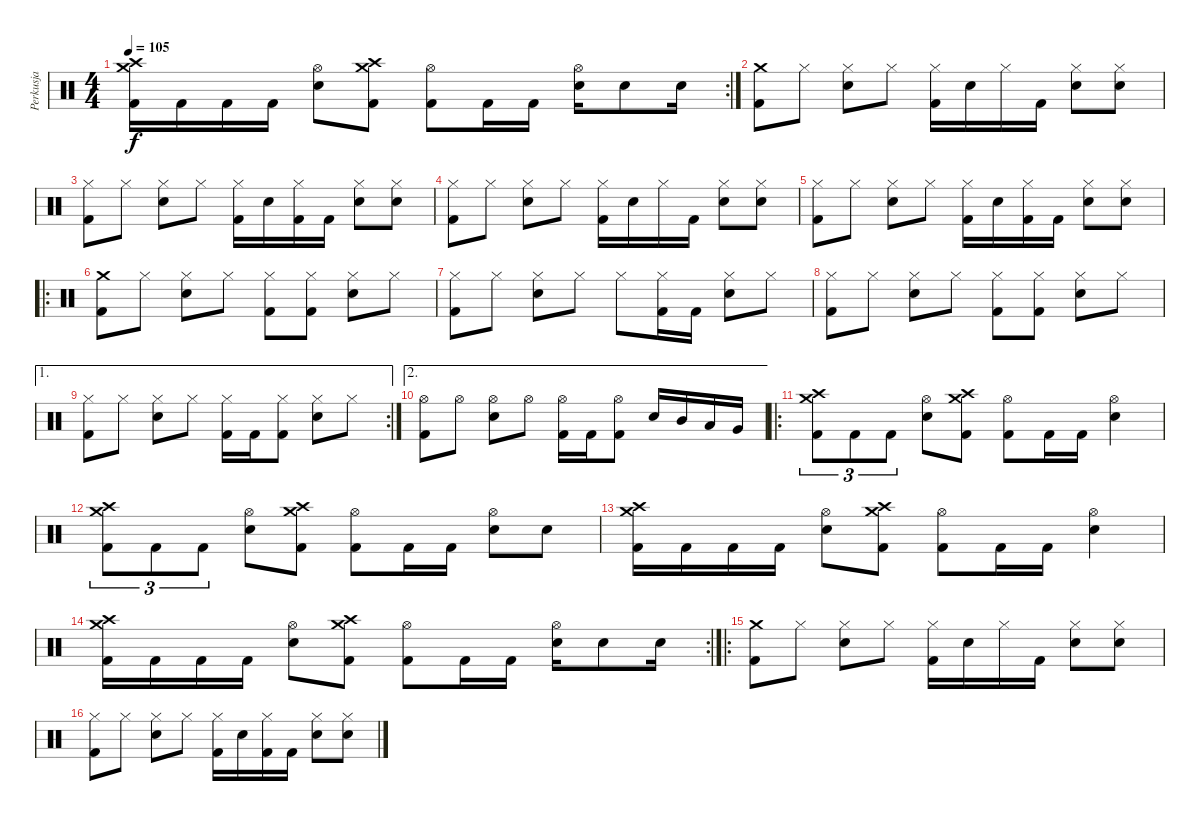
\track ("Perkusja" "Perkusja") {instrument percussion}
\staff {score}
\articulation defaults
\rc 2
\ts (4 4)
\tempo 105
\clef neutral
\ks c
("Crash high (hit)" "Crash medium (hit)" "Kick (hit) 2").16{dy f} "Kick (hit) 2".16 "Kick (hit) 2".16 "Kick (hit) 2".16 ("Hi-Hat (open)" "Snare (hit) 2").8 ("Crash high (hit)" "Crash medium (hit)" "Kick (hit) 2").8 ("Hi-Hat (open)" "Kick (hit) 2").8 "Kick (hit) 2".16 "Kick (hit) 2".16 ("Hi-Hat (open)" "Snare (hit) 2").16 "Snare (hit) 2".8 "Snare (hit) 2".16 |
("Crash medium (hit)" "Kick (hit) 2").8 "Hi-Hat (closed)".8 ("Hi-Hat (closed)" "Snare (hit) 2").8 "Hi-Hat (closed)".8 ("Hi-Hat (closed)" "Kick (hit) 2").16 "Snare (hit) 2".16 "Hi-Hat (closed)".16 "Kick (hit) 2".16 ("Hi-Hat (closed)" "Snare (hit) 2").8 ("Hi-Hat (closed)" "Snare (hit) 2").8 |
("Hi-Hat (closed)" "Kick (hit) 2").8 "Hi-Hat (closed)".8 ("Hi-Hat (closed)" "Snare (hit) 2").8 "Hi-Hat (closed)".8 ("Hi-Hat (closed)" "Kick (hit) 2").16 "Snare (hit) 2".16 ("Hi-Hat (closed)" "Kick (hit) 2").16 "Kick (hit) 2".16 ("Hi-Hat (closed)" "Snare (hit) 2").8 ("Hi-Hat (closed)" "Snare (hit) 2").8 |
("Hi-Hat (closed)" "Kick (hit) 2").8 "Hi-Hat (closed)".8 ("Hi-Hat (closed)" "Snare (hit) 2").8 "Hi-Hat (closed)".8 ("Hi-Hat (closed)" "Kick (hit) 2").16 "Snare (hit) 2".16 "Hi-Hat (closed)".16 "Kick (hit) 2".16 ("Hi-Hat (closed)" "Snare (hit) 2").8 ("Hi-Hat (closed)" "Snare (hit) 2").8 |
("Hi-Hat (closed)" "Kick (hit) 2").8 "Hi-Hat (closed)".8 ("Hi-Hat (closed)" "Snare (hit) 2").8 "Hi-Hat (closed)".8 ("Hi-Hat (closed)" "Kick (hit) 2").16 "Snare (hit) 2".16 ("Hi-Hat (closed)" "Kick (hit) 2").16 "Kick (hit) 2".16 ("Hi-Hat (closed)" "Snare (hit) 2").8 ("Hi-Hat (closed)" "Snare (hit) 2").8 |
\ro
("Crash medium (hit)" "Kick (hit) 2").8 "Hi-Hat (closed)".8 ("Hi-Hat (closed)" "Snare (hit) 2").8 "Hi-Hat (closed)".8 ("Hi-Hat (closed)" "Kick (hit) 2").8 ("Hi-Hat (closed)" "Kick (hit) 2").8 ("Hi-Hat (closed)" "Snare (hit) 2").8 "Hi-Hat (closed)".8 |
("Hi-Hat (closed)" "Kick (hit) 2").8 "Hi-Hat (closed)".8 ("Hi-Hat (closed)" "Snare (hit) 2").8 "Hi-Hat (closed)".8 "Hi-Hat (closed)".8 ("Hi-Hat (closed)" "Kick (hit) 2").16 "Kick (hit) 2".16 ("Hi-Hat (closed)" "Snare (hit) 2").8 "Hi-Hat (closed)".8 |
("Hi-Hat (closed)" "Kick (hit) 2").8 "Hi-Hat (closed)".8 ("Hi-Hat (closed)" "Snare (hit) 2").8 "Hi-Hat (closed)".8 ("Hi-Hat (closed)" "Kick (hit) 2").8 ("Hi-Hat (closed)" "Kick (hit) 2").8 ("Hi-Hat (closed)" "Snare (hit) 2").8 "Hi-Hat (closed)".8 |
\ae 1
\rc 2
("Hi-Hat (closed)" "Kick (hit) 2").8 "Hi-Hat (closed)".8 ("Hi-Hat (closed)" "Snare (hit) 2").8 "Hi-Hat (closed)".8 ("Hi-Hat (closed)" "Kick (hit) 2").16 "Kick (hit) 2".16 ("Hi-Hat (closed)" "Kick (hit) 2").8 ("Hi-Hat (closed)" "Snare (hit) 2").8 "Hi-Hat (closed)".8 |
\ae 2
("Hi-Hat (open)" "Kick (hit) 2").8 "Hi-Hat (open)".8 ("Hi-Hat (open)" "Snare (hit) 2").8 "Hi-Hat (open)".8 ("Hi-Hat (open)" "Kick (hit) 2").16 "Kick (hit) 2".16 ("Hi-Hat (open)" "Kick (hit) 2").8 "Snare (hit) 2".16 "Mid Tom (hit)".16 "Low Tom (hit)".16 "Very Low Tom (hit)".16 |
\ro
("Crash high (hit)" "Crash medium (hit)" "Kick (hit) 2").8{tu (3 2)} "Kick (hit) 2".8{tu (3 2)} "Kick (hit) 2".8{tu (3 2)} ("Hi-Hat (open)" "Snare (hit) 2").8 ("Crash high (hit)" "Crash medium (hit)" "Kick (hit) 2").8 ("Hi-Hat (open)" "Kick (hit) 2").8 "Kick (hit) 2".16 "Kick (hit) 2".16 ("Hi-Hat (open)" "Snare (hit) 2").4 |
("Crash high (hit)" "Crash medium (hit)" "Kick (hit) 2").8{tu (3 2)} "Kick (hit) 2".8{tu (3 2)} "Kick (hit) 2".8{tu (3 2)} ("Hi-Hat (open)" "Snare (hit) 2").8 ("Crash high (hit)" "Crash medium (hit)" "Kick (hit) 2").8 ("Hi-Hat (open)" "Kick (hit) 2").8 "Kick (hit) 2".16 "Kick (hit) 2".16 ("Hi-Hat (open)" "Snare (hit) 2").8 "Snare (hit) 2".8 |
("Crash high (hit)" "Crash medium (hit)" "Kick (hit) 2").16 "Kick (hit) 2".16 "Kick (hit) 2".16 "Kick (hit) 2".16 ("Hi-Hat (open)" "Snare (hit) 2").8 ("Crash high (hit)" "Crash medium (hit)" "Kick (hit) 2").8 ("Hi-Hat (open)" "Kick (hit) 2").8 "Kick (hit) 2".16 "Kick (hit) 2".16 ("Hi-Hat (open)" "Snare (hit) 2").4 |
\rc 2
("Crash high (hit)" "Crash medium (hit)" "Kick (hit) 2").16 "Kick (hit) 2".16 "Kick (hit) 2".16 "Kick (hit) 2".16 ("Hi-Hat (open)" "Snare (hit) 2").8 ("Crash high (hit)" "Crash medium (hit)" "Kick (hit) 2").8 ("Hi-Hat (open)" "Kick (hit) 2").8 "Kick (hit) 2".16 "Kick (hit) 2".16 ("Hi-Hat (open)" "Snare (hit) 2").16 "Snare (hit) 2".8 "Snare (hit) 2".16 |
\ro
("Crash medium (hit)" "Kick (hit) 2").8 "Hi-Hat (closed)".8 ("Hi-Hat (closed)" "Snare (hit) 2").8 "Hi-Hat (closed)".8 ("Hi-Hat (closed)" "Kick (hit) 2").16 "Snare (hit) 2".16 "Hi-Hat (closed)".16 "Kick (hit) 2".16 ("Hi-Hat (closed)" "Snare (hit) 2").8 ("Hi-Hat (closed)" "Snare (hit) 2").8 |
("Hi-Hat (closed)" "Kick (hit) 2").8 "Hi-Hat (closed)".8 ("Hi-Hat (closed)" "Snare (hit) 2").8 "Hi-Hat (closed)".8 ("Hi-Hat (closed)" "Kick (hit) 2").16 "Snare (hit) 2".16 ("Hi-Hat (closed)" "Kick (hit) 2").16 "Kick (hit) 2".16 ("Hi-Hat (closed)" "Snare (hit) 2").8 ("Hi-Hat (closed)" "Snare (hit) 2").8
